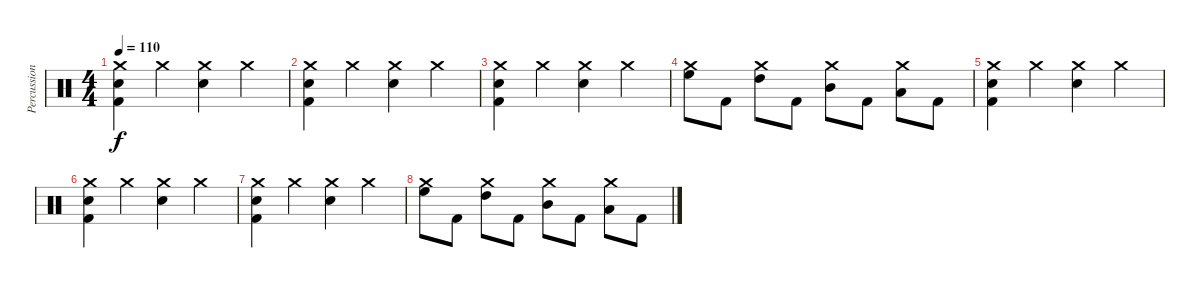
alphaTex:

\track ("Percussion" "Percussion") {instrument percussion}
\staff {score}
\articulation defaults
\ts (4 4)
\tempo 110
\clef neutral
\ks c
("Crash medium (hit)" "Electric Snare (hit)" "Kick (hit) 2").4{dy f} "Crash medium (hit)".4 ("Crash medium (hit)" "Electric Snare (hit)").4 "Crash medium (hit)".4 |
("Crash medium (hit)" "Electric Snare (hit)" "Kick (hit) 2").4 "Crash medium (hit)".4 ("Crash medium (hit)" "Electric Snare (hit)").4 "Crash medium (hit)".4 |
("Crash medium (hit)" "Electric Snare (hit)" "Kick (hit) 2").4 "Crash medium (hit)".4 ("Crash medium (hit)" "Electric Snare (hit)").4 "Crash medium (hit)".4 |
("Crash medium (hit)" "High Floor Tom (hit)").8 "Kick (hit) 2".8 ("Crash medium (hit)" "High Tom (hit)").8 "Kick (hit) 2".8 ("Crash medium (hit)" "Mid Tom (hit)").8 "Kick (hit) 2".8 ("Crash medium (hit)" "Low Tom (hit)").8 "Kick (hit) 2".8 |
("Crash medium (hit)" "Electric Snare (hit)" "Kick (hit) 2").4 "Crash medium (hit)".4 ("Crash medium (hit)" "Electric Snare (hit)").4 "Crash medium (hit)".4 |
("Crash medium (hit)" "Electric Snare (hit)" "Kick (hit) 2").4 "Crash medium (hit)".4 ("Crash medium (hit)" "Electric Snare (hit)").4 "Crash medium (hit)".4 |
("Crash medium (hit)" "Electric Snare (hit)" "Kick (hit) 2").4 "Crash medium (hit)".4 ("Crash medium (hit)" "Electric Snare (hit)").4 "Crash medium (hit)".4 |
("Crash medium (hit)" "High Floor Tom (hit)").8 "Kick (hit) 2".8 ("Crash medium (hit)" "High Tom (hit)").8 "Kick (hit) 2".8 ("Crash medium (hit)" "Mid Tom (hit)").8 "Kick (hit) 2".8 ("Crash medium (hit)" "Low Tom (hit)").8 "Kick (hit) 2".8
